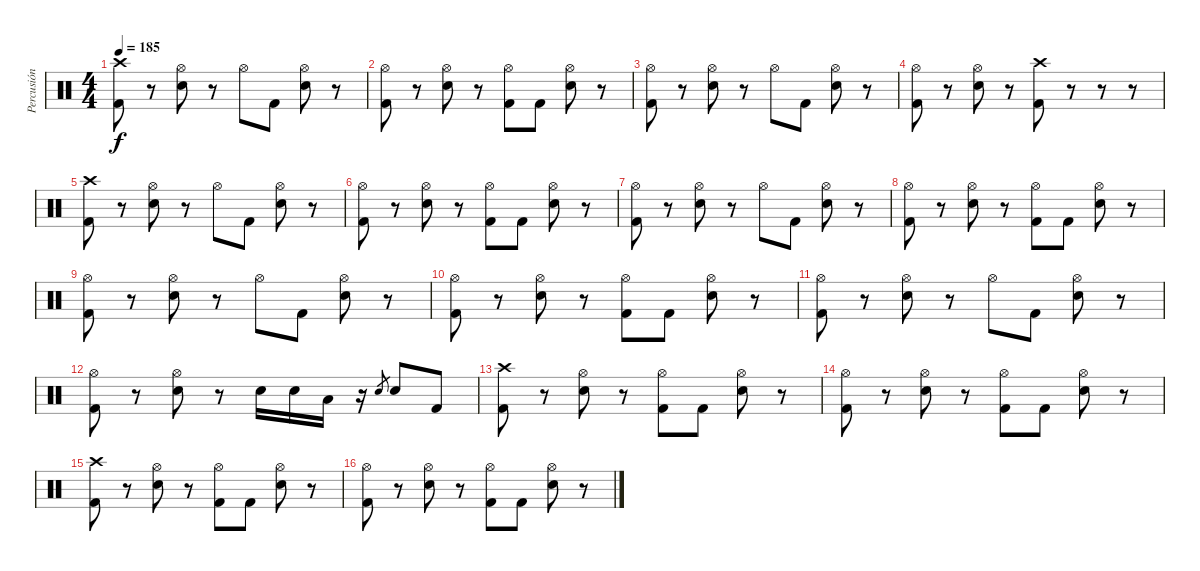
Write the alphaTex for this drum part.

\track ("Percusión" "Percusión") {instrument percussion}
\staff {score}
\articulation defaults
\ts (4 4)
\tempo 185
\clef neutral
\ks c
("Crash high (hit)" "Kick (hit) 2").8{dy f} r.8 ("Hi-Hat (open)" "Electric Snare (hit)").8 r.8 "Hi-Hat (open)".8 "Kick (hit) 2".8 ("Hi-Hat (open)" "Electric Snare (hit)").8 r.8 |
("Hi-Hat (open)" "Kick (hit) 2").8 r.8 ("Hi-Hat (open)" "Electric Snare (hit)").8 r.8 ("Hi-Hat (open)" "Kick (hit) 2").8 "Kick (hit) 2".8 ("Hi-Hat (open)" "Electric Snare (hit)").8 r.8 |
("Hi-Hat (open)" "Kick (hit) 2").8 r.8 ("Hi-Hat (open)" "Electric Snare (hit)").8 r.8 "Hi-Hat (open)".8 "Kick (hit) 2".8 ("Hi-Hat (open)" "Electric Snare (hit)").8 r.8 |
("Hi-Hat (open)" "Kick (hit) 2").8 r.8 ("Hi-Hat (open)" "Electric Snare (hit)").8 r.8 ("Crash high (hit)" "Kick (hit) 2").8 r.8 r.8 r.8 |
("Crash high (hit)" "Kick (hit) 2").8 r.8 ("Hi-Hat (open)" "Electric Snare (hit)").8 r.8 "Hi-Hat (open)".8 "Kick (hit) 2".8 ("Hi-Hat (open)" "Electric Snare (hit)").8 r.8 |
("Hi-Hat (open)" "Kick (hit) 2").8 r.8 ("Hi-Hat (open)" "Electric Snare (hit)").8 r.8 ("Hi-Hat (open)" "Kick (hit) 2").8 "Kick (hit) 2".8 ("Hi-Hat (open)" "Electric Snare (hit)").8 r.8 |
("Hi-Hat (open)" "Kick (hit) 2").8 r.8 ("Hi-Hat (open)" "Electric Snare (hit)").8 r.8 "Hi-Hat (open)".8 "Kick (hit) 2".8 ("Hi-Hat (open)" "Electric Snare (hit)").8 r.8 |
("Hi-Hat (open)" "Kick (hit) 2").8 r.8 ("Hi-Hat (open)" "Electric Snare (hit)").8 r.8 ("Hi-Hat (open)" "Kick (hit) 2").8 "Kick (hit) 2".8 ("Hi-Hat (open)" "Electric Snare (hit)").8 r.8 |
("Hi-Hat (open)" "Kick (hit) 2").8 r.8 ("Hi-Hat (open)" "Electric Snare (hit)").8 r.8 "Hi-Hat (open)".8 "Kick (hit) 2".8 ("Hi-Hat (open)" "Electric Snare (hit)").8 r.8 |
("Hi-Hat (open)" "Kick (hit) 2").8 r.8 ("Hi-Hat (open)" "Electric Snare (hit)").8 r.8 ("Hi-Hat (open)" "Kick (hit) 2").8 "Kick (hit) 2".8 ("Hi-Hat (open)" "Electric Snare (hit)").8 r.8 |
("Hi-Hat (open)" "Kick (hit) 2").8 r.8 ("Hi-Hat (open)" "Electric Snare (hit)").8 r.8 "Hi-Hat (open)".8 "Kick (hit) 2".8 ("Hi-Hat (open)" "Electric Snare (hit)").8 r.8 |
("Hi-Hat (open)" "Kick (hit) 2").8 r.8 ("Hi-Hat (open)" "Electric Snare (hit)").8 r.8 "Electric Snare (hit)".16 "Electric Snare (hit)".16 "Low Tom (hit)".16 r.16 "Electric Snare (hit)".8{gr} "Electric Snare (hit)".8 "Kick (hit) 2".8 |
("Crash high (hit)" "Kick (hit) 2").8 r.8 ("Hi-Hat (open)" "Electric Snare (hit)").8 r.8 ("Hi-Hat (open)" "Kick (hit) 2").8 "Kick (hit) 2".8 ("Hi-Hat (open)" "Electric Snare (hit)").8 r.8 |
("Hi-Hat (open)" "Kick (hit) 2").8 r.8 ("Hi-Hat (open)" "Electric Snare (hit)").8 r.8 ("Hi-Hat (open)" "Kick (hit) 2").8 "Kick (hit) 2".8 ("Hi-Hat (open)" "Electric Snare (hit)").8 r.8 |
("Crash high (hit)" "Kick (hit) 2").8 r.8 ("Hi-Hat (open)" "Electric Snare (hit)").8 r.8 ("Hi-Hat (open)" "Kick (hit) 2").8 "Kick (hit) 2".8 ("Hi-Hat (open)" "Electric Snare (hit)").8 r.8 |
("Hi-Hat (open)" "Kick (hit) 2").8 r.8 ("Hi-Hat (open)" "Electric Snare (hit)").8 r.8 ("Hi-Hat (open)" "Kick (hit) 2").8 "Kick (hit) 2".8 ("Hi-Hat (open)" "Electric Snare (hit)").8 r.8
